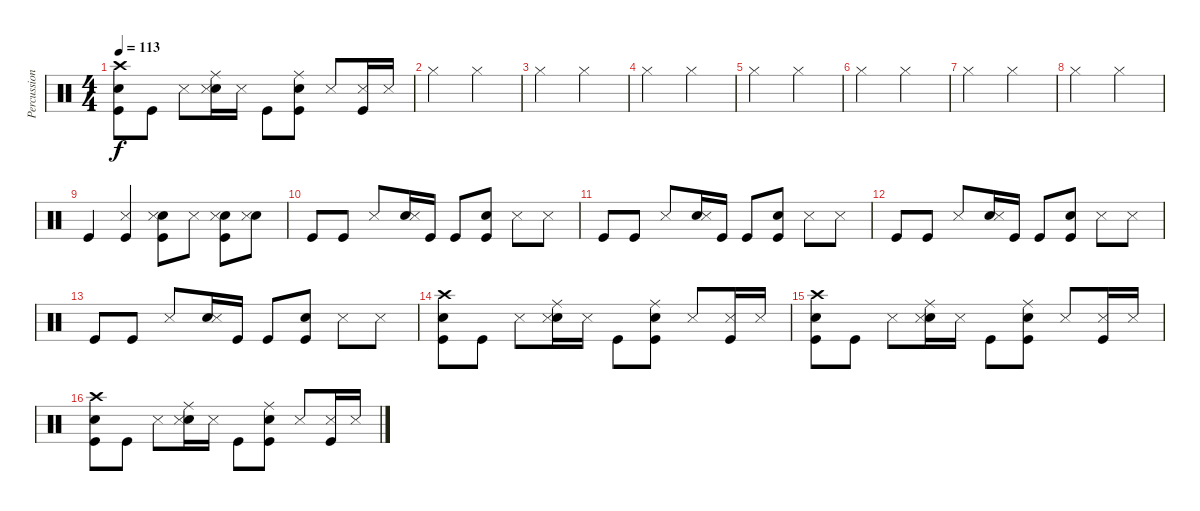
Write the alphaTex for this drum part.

\track ("Percussion" "Percussion") {instrument percussion}
\staff {score}
\articulation defaults
\ts (4 4)
\tempo 113
\clef neutral
\ks c
("Crash high (hit)" "Electric Snare (hit)" "Kick (hit)").8{dy f} "Kick (hit)".8 "Snare (side stick) 3".8 ("Ride (middle)" "Electric Snare (hit)" "Snare (side stick) 3").16 "Snare (side stick) 3".16 "Kick (hit)".8 ("Ride (middle)" "Electric Snare (hit)" "Kick (hit)").8 "Snare (side stick) 3".8 ("Snare (side stick) 3" "Kick (hit)").16 "Snare (side stick) 3".16 |
"Hi-Hat (closed)".2 "Hi-Hat (closed)".2 |
"Hi-Hat (closed)".2 "Hi-Hat (closed)".2 |
"Hi-Hat (closed)".2 "Hi-Hat (closed)".2 |
"Hi-Hat (closed)".2 "Hi-Hat (closed)".2 |
"Hi-Hat (closed)".2 "Hi-Hat (closed)".2 |
"Hi-Hat (closed)".2 "Hi-Hat (closed)".2 |
"Hi-Hat (closed)".2 "Hi-Hat (closed)".2 |
"Kick (hit)".4 ("Snare (side stick) 3" "Kick (hit)").4 ("Electric Snare (hit)" "Snare (side stick) 3" "Kick (hit)").8 "Snare (side stick) 3".8 ("Electric Snare (hit)" "Snare (side stick) 3" "Kick (hit)").8 ("Electric Snare (hit)" "Snare (side stick) 3").8 |
"Kick (hit)".8 "Kick (hit)".8 "Snare (side stick) 3".8 ("Electric Snare (hit)" "Snare (side stick) 3").16 "Kick (hit)".16 "Kick (hit)".8 ("Electric Snare (hit)" "Kick (hit)").8 "Snare (side stick) 3".8 "Snare (side stick) 3".8 |
"Kick (hit)".8 "Kick (hit)".8 "Snare (side stick) 3".8 ("Electric Snare (hit)" "Snare (side stick) 3").16 "Kick (hit)".16 "Kick (hit)".8 ("Electric Snare (hit)" "Kick (hit)").8 "Snare (side stick) 3".8 "Snare (side stick) 3".8 |
"Kick (hit)".8 "Kick (hit)".8 "Snare (side stick) 3".8 ("Electric Snare (hit)" "Snare (side stick) 3").16 "Kick (hit)".16 "Kick (hit)".8 ("Electric Snare (hit)" "Kick (hit)").8 "Snare (side stick) 3".8 "Snare (side stick) 3".8 |
"Kick (hit)".8 "Kick (hit)".8 "Snare (side stick) 3".8 ("Electric Snare (hit)" "Snare (side stick) 3").16 "Kick (hit)".16 "Kick (hit)".8 ("Electric Snare (hit)" "Kick (hit)").8 "Snare (side stick) 3".8 "Snare (side stick) 3".8 |
("Crash high (hit)" "Electric Snare (hit)" "Kick (hit)").8 "Kick (hit)".8 "Snare (side stick) 3".8 ("Ride (middle)" "Electric Snare (hit)" "Snare (side stick) 3").16 "Snare (side stick) 3".16 "Kick (hit)".8 ("Ride (middle)" "Electric Snare (hit)" "Kick (hit)").8 "Snare (side stick) 3".8 ("Snare (side stick) 3" "Kick (hit)").16 "Snare (side stick) 3".16 |
("Crash high (hit)" "Electric Snare (hit)" "Kick (hit)").8 "Kick (hit)".8 "Snare (side stick) 3".8 ("Ride (middle)" "Electric Snare (hit)" "Snare (side stick) 3").16 "Snare (side stick) 3".16 "Kick (hit)".8 ("Ride (middle)" "Electric Snare (hit)" "Kick (hit)").8 "Snare (side stick) 3".8 ("Snare (side stick) 3" "Kick (hit)").16 "Snare (side stick) 3".16 |
("Crash high (hit)" "Electric Snare (hit)" "Kick (hit)").8 "Kick (hit)".8 "Snare (side stick) 3".8 ("Ride (middle)" "Electric Snare (hit)" "Snare (side stick) 3").16 "Snare (side stick) 3".16 "Kick (hit)".8 ("Ride (middle)" "Electric Snare (hit)" "Kick (hit)").8 "Snare (side stick) 3".8 ("Snare (side stick) 3" "Kick (hit)").16 "Snare (side stick) 3".16
